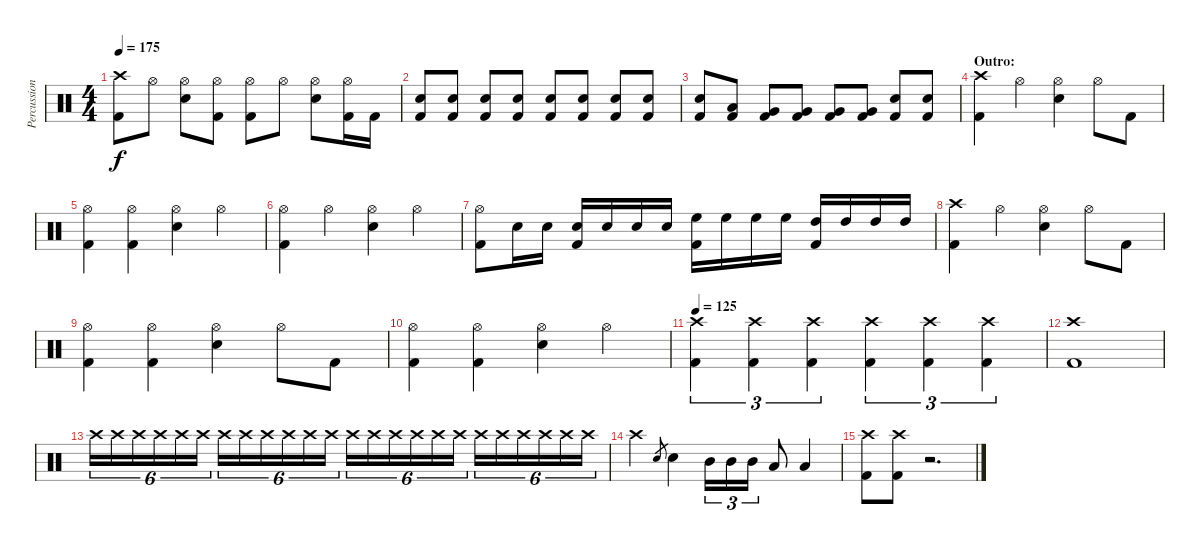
\track ("Percussion" "Percussion") {instrument percussion}
\staff {score}
\articulation defaults
\ts (4 4)
\tempo 175
\clef neutral
\ks c
("Crash high (hit)" "Kick (hit) 2").8{dy f} "Hi-Hat (open)".8 ("Hi-Hat (open)" "Electric Snare (hit)").8 ("Hi-Hat (open)" "Kick (hit) 2").8 ("Hi-Hat (open)" "Kick (hit) 2").8 "Hi-Hat (open)".8 ("Hi-Hat (open)" "Electric Snare (hit)").8 ("Hi-Hat (open)" "Kick (hit) 2").16 "Kick (hit) 2".16 |
("Electric Snare (hit)" "Kick (hit) 2").8 ("Electric Snare (hit)" "Kick (hit) 2").8 ("Electric Snare (hit)" "Kick (hit) 2").8 ("Electric Snare (hit)" "Kick (hit) 2").8 ("Electric Snare (hit)" "Kick (hit) 2").8 ("Electric Snare (hit)" "Kick (hit) 2").8 ("Electric Snare (hit)" "Kick (hit) 2").8 ("Electric Snare (hit)" "Kick (hit) 2").8 |
("Electric Snare (hit)" "Kick (hit) 2").8 ("Low Tom (hit)" "Kick (hit) 2").8 ("Very Low Tom (hit)" "Kick (hit) 2").8 ("Very Low Tom (hit)" "Kick (hit) 2").8 ("Very Low Tom (hit)" "Kick (hit) 2").8 ("Very Low Tom (hit)" "Kick (hit) 2").8 ("Electric Snare (hit)" "Kick (hit) 2").8 ("Electric Snare (hit)" "Kick (hit) 2").8 |
\section ("" "Outro:")
("Crash high (hit)" "Kick (hit) 2").4 "Hi-Hat (open)".4 ("Hi-Hat (open)" "Electric Snare (hit)").4 "Hi-Hat (open)".8 "Kick (hit) 2".8 |
("Hi-Hat (open)" "Kick (hit) 2").4 ("Hi-Hat (open)" "Kick (hit) 2").4 ("Hi-Hat (open)" "Electric Snare (hit)").4 "Hi-Hat (open)".4 |
("Hi-Hat (open)" "Kick (hit) 2").4 "Hi-Hat (open)".4 ("Hi-Hat (open)" "Electric Snare (hit)").4 "Hi-Hat (open)".4 |
("Hi-Hat (open)" "Kick (hit) 2").8 "Electric Snare (hit)".16 "Electric Snare (hit)".16 ("Electric Snare (hit)" "Kick (hit) 2").16 "Electric Snare (hit)".16 "Electric Snare (hit)".16 "Electric Snare (hit)".16 ("High Floor Tom (hit)" "Kick (hit) 2").16 "High Floor Tom (hit)".16 "High Floor Tom (hit)".16 "High Floor Tom (hit)".16 ("High Tom (hit)" "Kick (hit) 2").16 "High Tom (hit)".16 "High Tom (hit)".16 "High Tom (hit)".16 |
("Crash high (hit)" "Kick (hit) 2").4 "Hi-Hat (open)".4 ("Hi-Hat (open)" "Electric Snare (hit)").4 "Hi-Hat (open)".8 "Kick (hit) 2".8 |
("Hi-Hat (open)" "Kick (hit) 2").4 ("Hi-Hat (open)" "Kick (hit) 2").4 ("Hi-Hat (open)" "Electric Snare (hit)").4 "Hi-Hat (open)".8 "Kick (hit) 2".8 |
("Hi-Hat (open)" "Kick (hit) 2").4 ("Hi-Hat (open)" "Kick (hit) 2").4 ("Hi-Hat (open)" "Electric Snare (hit)").4 "Hi-Hat (open)".4 |
\tempo 125
("Crash high (hit)" "Kick (hit) 2").4{tu (3 2)} ("Crash high (hit)" "Kick (hit) 2").4{tu (3 2)} ("Crash high (hit)" "Kick (hit) 2").4{tu (3 2)} ("Crash high (hit)" "Kick (hit) 2").4{tu (3 2)} ("Crash high (hit)" "Kick (hit) 2").4{tu (3 2)} ("Crash high (hit)" "Kick (hit) 2").4{tu (3 2)} |
("Crash high (hit)" "Kick (hit) 2").1 |
"Crash high (hit)".16{tu (6 4)} "Crash high (hit)".16{tu (6 4)} "Crash high (hit)".16{tu (6 4)} "Crash high (hit)".16{tu (6 4)} "Crash high (hit)".16{tu (6 4)} "Crash high (hit)".16{tu (6 4)} "Crash high (hit)".16{tu (6 4)} "Crash high (hit)".16{tu (6 4)} "Crash high (hit)".16{tu (6 4)} "Crash high (hit)".16{tu (6 4)} "Crash high (hit)".16{tu (6 4)} "Crash high (hit)".16{tu (6 4)} "Crash high (hit)".16{tu (6 4)} "Crash high (hit)".16{tu (6 4)} "Crash high (hit)".16{tu (6 4)} "Crash high (hit)".16{tu (6 4)} "Crash high (hit)".16{tu (6 4)} "Crash high (hit)".16{tu (6 4)} "Crash high (hit)".16{tu (6 4)} "Crash high (hit)".16{tu (6 4)} "Crash high (hit)".16{tu (6 4)} "Crash high (hit)".16{tu (6 4)} "Crash high (hit)".16{tu (6 4)} "Crash high (hit)".16{tu (6 4)} |
"Crash high (hit)".4 "Electric Snare (hit)".8{gr} "Electric Snare (hit)".4 "Mid Tom (hit)".16{tu (3 2)} "Mid Tom (hit)".16{tu (3 2)} "Mid Tom (hit)".16{tu (3 2)} "Low Tom (hit)".8 "Low Tom (hit)".4 |
("Crash high (hit)" "Kick (hit) 2").8 ("Crash high (hit)" "Kick (hit) 2").8 r.2{d}
